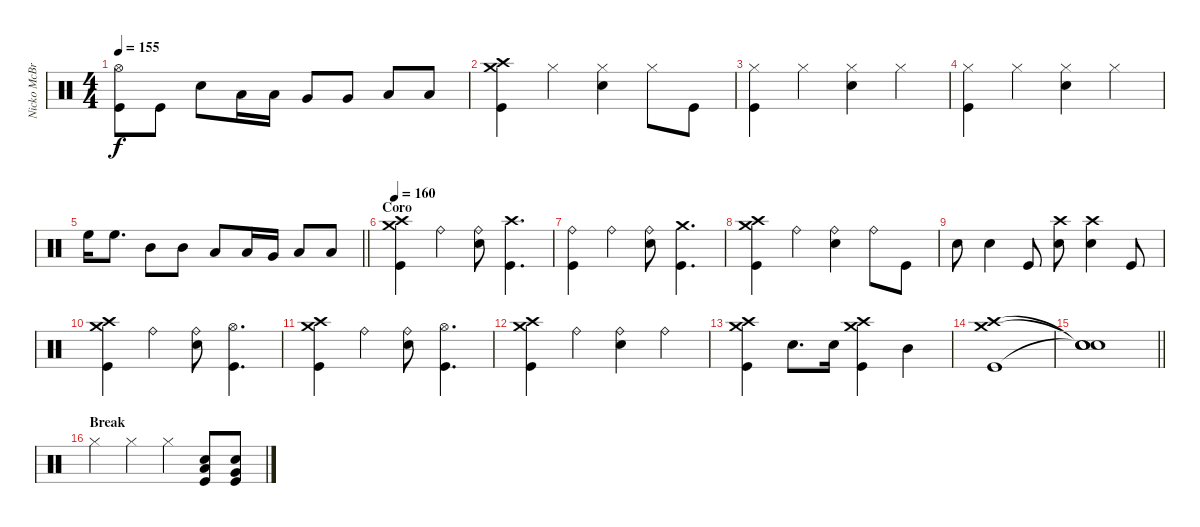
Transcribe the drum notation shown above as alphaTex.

\track ("Nicko McBrain" "Nicko McBr") {instrument percussion}
\staff {score}
\articulation defaults
\ts (4 4)
\tempo 155
\clef neutral
\ks c
("Hi-Hat (open)" "Kick (hit)").8{dy f} "Kick (hit)".8 "Snare (hit) 2".8 "Low Tom (hit)".16 "Low Tom (hit)".16 "Very Low Tom (hit)".8 "Very Low Tom (hit)".8 "Low Floor Tom (hit)".8 "Low Floor Tom (hit)".8 |
("Crash medium (hit)" "Crash high (hit)" "Kick (hit)").4 "Hi-Hat (closed)".4 ("Hi-Hat (closed)" "Snare (hit) 2").4 "Hi-Hat (closed)".8 "Kick (hit)".8 |
("Hi-Hat (closed)" "Kick (hit)").4 "Hi-Hat (closed)".4 ("Hi-Hat (closed)" "Snare (hit) 2").4 "Hi-Hat (closed)".4 |
("Hi-Hat (closed)" "Kick (hit)").4 "Hi-Hat (closed)".4 ("Hi-Hat (closed)" "Snare (hit) 2").4 "Hi-Hat (closed)".4 |
\barLineRight lightlight "High Floor Tom (hit)".16 "High Floor Tom (hit)".8{d} "Mid Tom (hit)".8 "Mid Tom (hit)".8 "Low Tom (hit)".8 "Low Tom (hit)".16 "Very Low Tom (hit)".16 "Low Tom (hit)".8 "Low Floor Tom (hit)".8
|
\section ("" "Coro")
\tempo 160
("Crash medium (hit)" "Crash high (hit)" "Kick (hit)").4 "Ride (bell)".4 ("Ride (bell)" "Snare (hit) 2").8 ("Crash high (hit)" "Kick (hit)").4{d} |
("Ride (bell)" "Kick (hit)").4 "Ride (bell)".4 ("Ride (bell)" "Snare (hit) 2").8 ("Crash medium (hit)" "Kick (hit)").4{d} |
("Crash medium (hit)" "Crash high (hit)" "Kick (hit)").4 "Ride (bell)".4 ("Ride (bell)" "Snare (hit) 2").4 "Ride (bell)".8 "Kick (hit)".8 |
"Snare (hit) 2".8 "Snare (hit) 2".4 "Kick (hit)".8 ("Crash high (hit)" "Snare (hit) 2").8 ("Crash high (hit)" "Snare (hit) 2").4 "Kick (hit)".8 |
("Crash medium (hit)" "Crash high (hit)" "Kick (hit)").4 "Ride (bell)".4 ("Ride (bell)" "Snare (hit) 2").8 ("Hi-Hat (open)" "Kick (hit)").4{d} |
("Crash medium (hit)" "Crash high (hit)" "Kick (hit)").4 "Ride (bell)".4 ("Ride (bell)" "Snare (hit) 2").8 ("Hi-Hat (open)" "Kick (hit)").4{d} |
("Crash medium (hit)" "Crash high (hit)" "Kick (hit)").4 "Ride (bell)".4 ("Ride (bell)" "Snare (hit) 2").4 "Ride (bell)".4 |
("Crash medium (hit)" "Crash high (hit)" "Kick (hit)").4 "Snare (hit) 2".8{d} "Snare (hit) 2".16 ("Crash medium (hit)" "Crash high (hit)" "Kick (hit)").4 "Mid Tom (hit)".4 |
("Crash medium (hit)" "Crash high (hit)" "Kick (hit)").1 |
\barLineRight lightlight
("Snare (hit)"{t} "Snare (hit)"{t} "Snare (hit)"{t}).1 |
\section ("" "Break")
"Hi-Hat (closed)".4 "Hi-Hat (closed)".4 "Hi-Hat (closed)".4 ("Low Floor Tom (hit)" "Snare (hit) 2" "Kick (hit)").8 ("Very Low Tom (hit)" "Snare (hit) 2" "Kick (hit)").8
